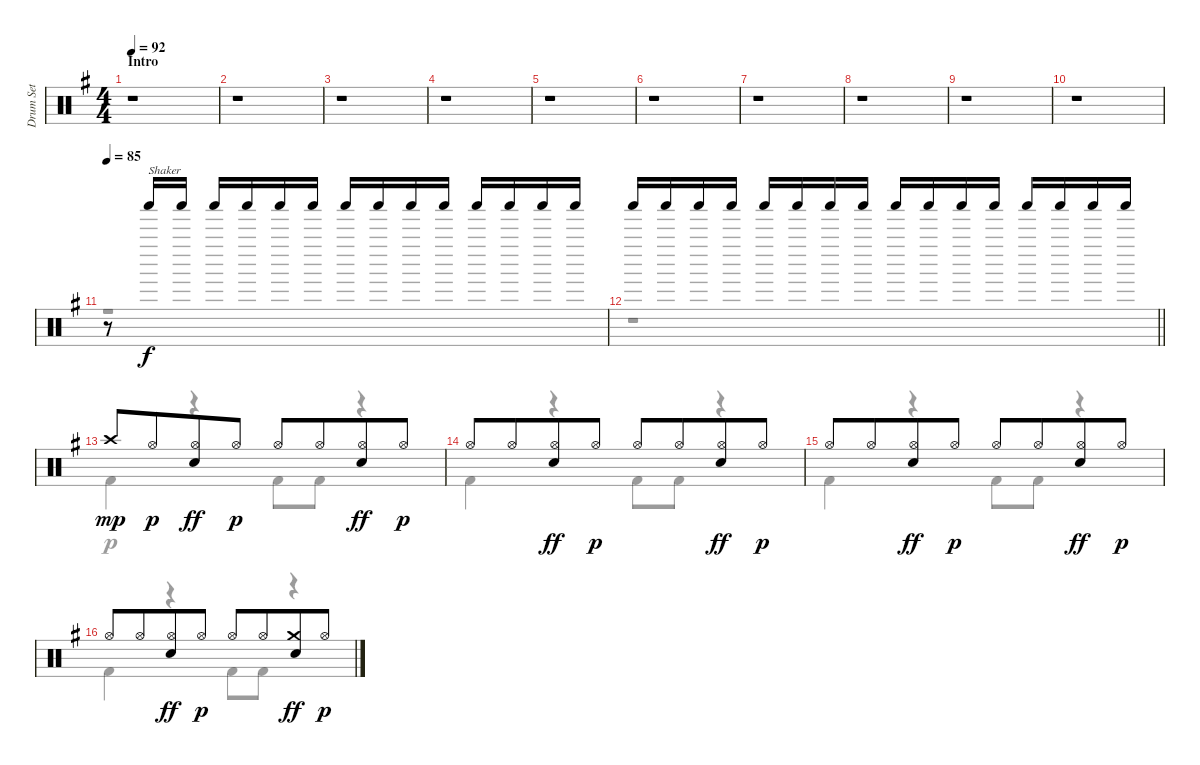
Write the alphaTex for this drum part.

\track ("Drum Set" "Drum Set") {instrument percussion}
\staff {score}
\articulation defaults
\voice
\ts (4 4)
\section ("" "Intro")
\tempo 92
\clef neutral
\ks g
r.1{dy f} |
r.1 |
r.1 |
r.1 |
r.1 |
r.1 |
r.1 |
r.1 |
r.1 |
r.1 |
\tempo 85
r.8{volume 2} "Shaker (hit)".16{txt "Shaker" beam Up} "Shaker (hit)".16{beam Up} "Shaker (hit)".16{beam Up} "Shaker (hit)".16{beam Up} "Shaker (hit)".16{beam Up} "Shaker (hit)".16{beam Up} "Shaker (hit)".16{beam Up} "Shaker (hit)".16{beam Up} "Shaker (hit)".16{beam Up} "Shaker (hit)".16{beam Up} "Shaker (hit)".16{beam Up} "Shaker (hit)".16{beam Up} "Shaker (hit)".16{beam Up} "Shaker (hit)".16{beam Up} |
\barLineRight lightlight "Shaker (hit)".16{beam Up} "Shaker (hit)".16{beam Up} "Shaker (hit)".16{beam Up} "Shaker (hit)".16{beam Up} "Shaker (hit)".16{beam Up} "Shaker (hit)".16{beam Up} "Shaker (hit)".16{beam Up} "Shaker (hit)".16{beam Up} "Shaker (hit)".16{beam Up} "Shaker (hit)".16{beam Up} "Shaker (hit)".16{beam Up} "Shaker (hit)".16{beam Up} "Shaker (hit)".16{beam Up} "Shaker (hit)".16{beam Up} "Shaker (hit)".16{beam Up} "Shaker (hit)".16{beam Up}
|
"Crash high (hit)".8{dy mp volume 14} "Hi-Hat (open)".8{dy p beam merge} ("Hi-Hat (open)" "Electric Snare (hit)").8{dy ff} "Hi-Hat (open)".8{dy p} "Hi-Hat (open)".8 "Hi-Hat (open)".8{beam merge} ("Hi-Hat (open)" "Electric Snare (hit)").8{dy ff} "Hi-Hat (open)".8{dy p} |
"Hi-Hat (open)".8 "Hi-Hat (open)".8{beam merge} ("Hi-Hat (open)" "Electric Snare (hit)").8{dy ff} "Hi-Hat (open)".8{dy p} "Hi-Hat (open)".8 "Hi-Hat (open)".8{beam merge} ("Hi-Hat (open)" "Electric Snare (hit)").8{dy ff} "Hi-Hat (open)".8{dy p} |
"Hi-Hat (open)".8 "Hi-Hat (open)".8{beam merge} ("Hi-Hat (open)" "Electric Snare (hit)").8{dy ff} "Hi-Hat (open)".8{dy p} "Hi-Hat (open)".8 "Hi-Hat (open)".8{beam merge} ("Hi-Hat (open)" "Electric Snare (hit)").8{dy ff} "Hi-Hat (open)".8{dy p} |
"Hi-Hat (open)".8 "Hi-Hat (open)".8{beam merge} ("Hi-Hat (open)" "Electric Snare (hit)").8{dy ff} "Hi-Hat (open)".8{dy p} "Hi-Hat (open)".8 "Hi-Hat (open)".8{beam merge} ("Crash medium (hit)" "Electric Snare (hit)").8{dy ff} "Hi-Hat (open)".8{dy p}
\voice
\clef neutral
\ottava regular
\simile none
\ks g
|
|
|
|
|
|
|
|
|
|
r.1 |
\barLineRight lightlight
r.1 |
"Kick (hit) 2".4 r.4 "Kick (hit) 2".8 "Kick (hit) 2".8 r.4 |
"Kick (hit) 2".4 r.4 "Kick (hit) 2".8 "Kick (hit) 2".8 r.4 |
"Kick (hit) 2".4 r.4 "Kick (hit) 2".8 "Kick (hit) 2".8 r.4 |
"Kick (hit) 2".4 r.4 "Kick (hit) 2".8 "Kick (hit) 2".8 r.4
